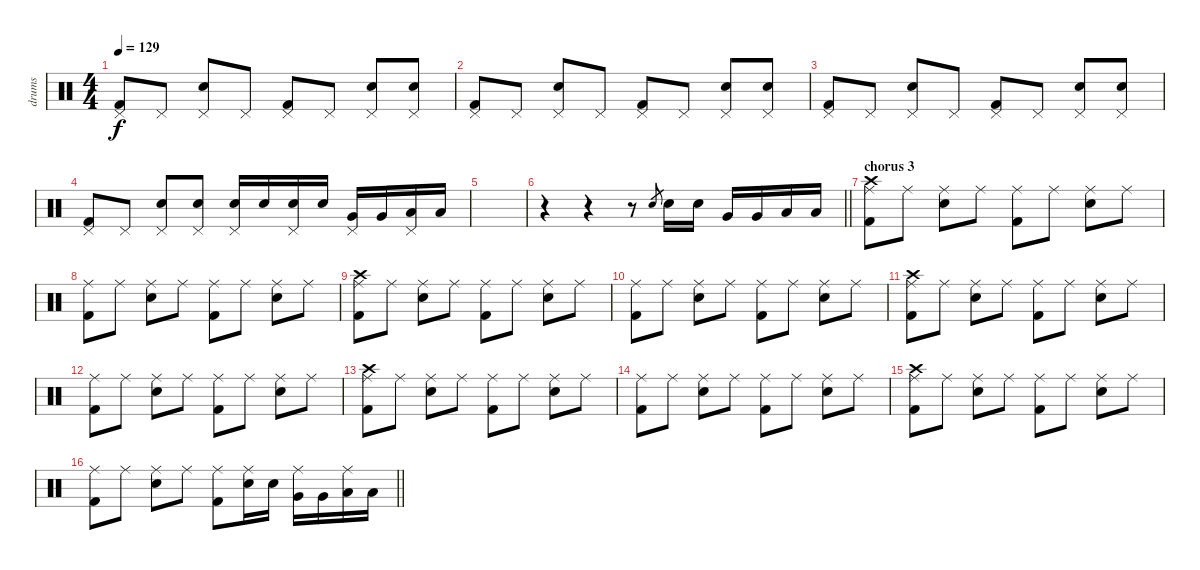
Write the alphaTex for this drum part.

\track ("drums" "drums") {instrument percussion}
\staff {score}
\articulation defaults
\ts (4 4)
\tempo 129
\clef neutral
\ks c
("Kick (hit) 2" "Pedal Hi-Hat (hit)").8{dy f} "Pedal Hi-Hat (hit)".8 ("Electric Snare (hit)" "Pedal Hi-Hat (hit)").8 "Pedal Hi-Hat (hit)".8 ("Kick (hit) 2" "Pedal Hi-Hat (hit)").8 "Pedal Hi-Hat (hit)".8 ("Electric Snare (hit)" "Pedal Hi-Hat (hit)").8 ("Electric Snare (hit)" "Pedal Hi-Hat (hit)").8 |
("Kick (hit) 2" "Pedal Hi-Hat (hit)").8 "Pedal Hi-Hat (hit)".8 ("Electric Snare (hit)" "Pedal Hi-Hat (hit)").8 "Pedal Hi-Hat (hit)".8 ("Kick (hit) 2" "Pedal Hi-Hat (hit)").8 "Pedal Hi-Hat (hit)".8 ("Electric Snare (hit)" "Pedal Hi-Hat (hit)").8 ("Electric Snare (hit)" "Pedal Hi-Hat (hit)").8 |
("Kick (hit) 2" "Pedal Hi-Hat (hit)").8 "Pedal Hi-Hat (hit)".8 ("Electric Snare (hit)" "Pedal Hi-Hat (hit)").8 "Pedal Hi-Hat (hit)".8 ("Kick (hit) 2" "Pedal Hi-Hat (hit)").8 "Pedal Hi-Hat (hit)".8 ("Electric Snare (hit)" "Pedal Hi-Hat (hit)").8 ("Electric Snare (hit)" "Pedal Hi-Hat (hit)").8 |
("Kick (hit) 2" "Pedal Hi-Hat (hit)").8 "Pedal Hi-Hat (hit)".8 ("Electric Snare (hit)" "Pedal Hi-Hat (hit)").8 ("Electric Snare (hit)" "Pedal Hi-Hat (hit)").8 ("Electric Snare (hit)" "Pedal Hi-Hat (hit)").16 "Electric Snare (hit)".16 ("Electric Snare (hit)" "Pedal Hi-Hat (hit)").16 "Electric Snare (hit)".16 ("Very Low Tom (hit)" "Pedal Hi-Hat (hit)").16 "Very Low Tom (hit)".16 ("Low Tom (hit)" "Pedal Hi-Hat (hit)").16 "Low Tom (hit)".16 |
|
\barLineRight lightlight
r.4 r.4 r.8 "Electric Snare (hit)".8{gr} "Electric Snare (hit)".16 "Electric Snare (hit)".16 "Very Low Tom (hit)".16 "Very Low Tom (hit)".16 "Low Tom (hit)".16 "Low Tom (hit)".16 |
\section ("" "chorus 3")
("Kick (hit) 2" "Ride (middle)" "Crash high (hit)").8 "Ride (middle)".8 ("Electric Snare (hit)" "Ride (middle)").8 "Ride (middle)".8 ("Kick (hit) 2" "Ride (middle)").8 "Ride (middle)".8 ("Electric Snare (hit)" "Ride (middle)").8 "Ride (middle)".8 |
("Kick (hit) 2" "Ride (middle)").8 "Ride (middle)".8 ("Electric Snare (hit)" "Ride (middle)").8 "Ride (middle)".8 ("Kick (hit) 2" "Ride (middle)").8 "Ride (middle)".8 ("Electric Snare (hit)" "Ride (middle)").8 "Ride (middle)".8 |
("Kick (hit) 2" "Ride (middle)" "Crash high (hit)").8 "Ride (middle)".8 ("Electric Snare (hit)" "Ride (middle)").8 "Ride (middle)".8 ("Kick (hit) 2" "Ride (middle)").8 "Ride (middle)".8 ("Electric Snare (hit)" "Ride (middle)").8 "Ride (middle)".8 |
("Kick (hit) 2" "Ride (middle)").8 "Ride (middle)".8 ("Electric Snare (hit)" "Ride (middle)").8 "Ride (middle)".8 ("Kick (hit) 2" "Ride (middle)").8 "Ride (middle)".8 ("Electric Snare (hit)" "Ride (middle)").8 "Ride (middle)".8 |
("Kick (hit) 2" "Ride (middle)" "Crash high (hit)").8 "Ride (middle)".8 ("Electric Snare (hit)" "Ride (middle)").8 "Ride (middle)".8 ("Kick (hit) 2" "Ride (middle)").8 "Ride (middle)".8 ("Electric Snare (hit)" "Ride (middle)").8 "Ride (middle)".8 |
("Kick (hit) 2" "Ride (middle)").8 "Ride (middle)".8 ("Electric Snare (hit)" "Ride (middle)").8 "Ride (middle)".8 ("Kick (hit) 2" "Ride (middle)").8 "Ride (middle)".8 ("Electric Snare (hit)" "Ride (middle)").8 "Ride (middle)".8 |
("Kick (hit) 2" "Ride (middle)" "Crash high (hit)").8 "Ride (middle)".8 ("Electric Snare (hit)" "Ride (middle)").8 "Ride (middle)".8 ("Kick (hit) 2" "Ride (middle)").8 "Ride (middle)".8 ("Electric Snare (hit)" "Ride (middle)").8 "Ride (middle)".8 |
("Kick (hit) 2" "Ride (middle)").8 "Ride (middle)".8 ("Electric Snare (hit)" "Ride (middle)").8 "Ride (middle)".8 ("Kick (hit) 2" "Ride (middle)").8 "Ride (middle)".8 ("Electric Snare (hit)" "Ride (middle)").8 "Ride (middle)".8 |
("Kick (hit) 2" "Ride (middle)" "Crash high (hit)").8 "Ride (middle)".8 ("Electric Snare (hit)" "Ride (middle)").8 "Ride (middle)".8 ("Kick (hit) 2" "Ride (middle)").8 "Ride (middle)".8 ("Electric Snare (hit)" "Ride (middle)").8 "Ride (middle)".8 |
\barLineRight lightlight
("Kick (hit) 2" "Ride (middle)").8 "Ride (middle)".8 ("Electric Snare (hit)" "Ride (middle)").8 "Ride (middle)".8 ("Kick (hit) 2" "Ride (middle)").8 ("Electric Snare (hit)" "Ride (middle)").16 "Electric Snare (hit)".16 ("Very Low Tom (hit)" "Ride (middle)").16 "Very Low Tom (hit)".16 ("Low Tom (hit)" "Ride (middle)").16 "Low Tom (hit)".16
